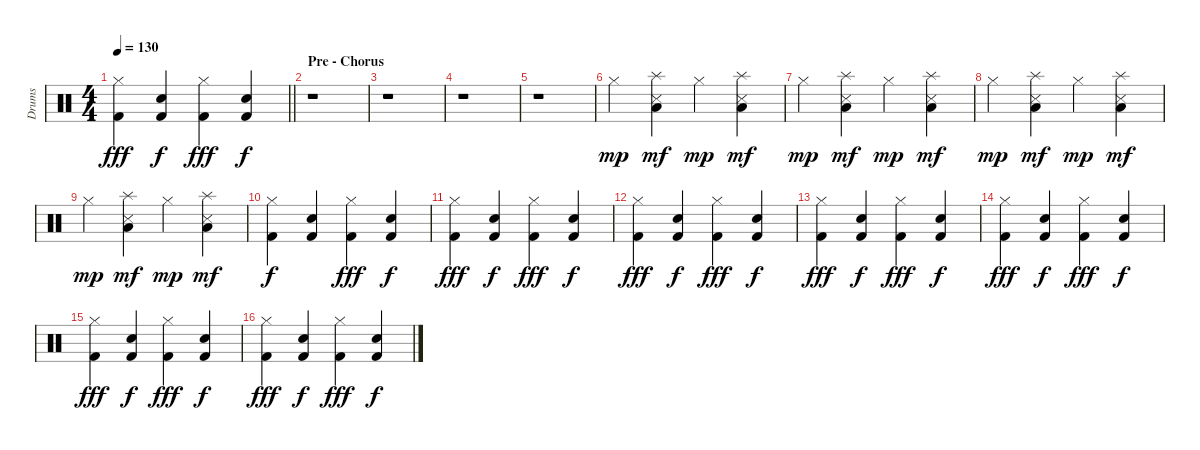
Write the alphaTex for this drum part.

\track ("Drums" "Drums") {instrument percussion}
\staff {score}
\articulation defaults
\ts (4 4)
\tempo 130
\clef neutral
\barLineRight lightlight
\ks c
("Kick (hit) 2" "Hi-Hat (closed)").4{dy fff} ("Kick (hit) 2" "Snare (hit) 2").4{dy f} ("Kick (hit) 2" "Hi-Hat (closed)").4{dy fff} ("Kick (hit) 2" "Snare (hit) 2").4{dy f} |
\section ("" "Pre - Chorus")
r.1 |
r.1 |
r.1 |
r.1 |
"Hi-Hat (closed)".4{dy mp} ("Low Tom (hit)" "Snare (side stick) 3" "Splash (hit)").4{dy mf} "Hi-Hat (closed)".4{dy mp} ("Low Tom (hit)" "Snare (side stick) 3" "Splash (hit)").4{dy mf} |
"Hi-Hat (closed)".4{dy mp} ("Low Tom (hit)" "Snare (side stick) 3" "Splash (hit)").4{dy mf} "Hi-Hat (closed)".4{dy mp} ("Low Tom (hit)" "Snare (side stick) 3" "Splash (hit)").4{dy mf} |
"Hi-Hat (closed)".4{dy mp} ("Low Tom (hit)" "Snare (side stick) 3" "Splash (hit)").4{dy mf} "Hi-Hat (closed)".4{dy mp} ("Low Tom (hit)" "Snare (side stick) 3" "Splash (hit)").4{dy mf} |
"Hi-Hat (closed)".4{dy mp} ("Low Tom (hit)" "Snare (side stick) 3" "Splash (hit)").4{dy mf} "Hi-Hat (closed)".4{dy mp} ("Low Tom (hit)" "Snare (side stick) 3" "Splash (hit)").4{dy mf} |
("Kick (hit) 2" "Hi-Hat (closed)").4{dy f} ("Kick (hit) 2" "Snare (hit) 2").4 ("Kick (hit) 2" "Hi-Hat (closed)").4{dy fff} ("Kick (hit) 2" "Snare (hit) 2").4{dy f} |
("Kick (hit) 2" "Hi-Hat (closed)").4{dy fff} ("Kick (hit) 2" "Snare (hit) 2").4{dy f} ("Kick (hit) 2" "Hi-Hat (closed)").4{dy fff} ("Kick (hit) 2" "Snare (hit) 2").4{dy f} |
("Kick (hit) 2" "Hi-Hat (closed)").4{dy fff} ("Kick (hit) 2" "Snare (hit) 2").4{dy f} ("Kick (hit) 2" "Hi-Hat (closed)").4{dy fff} ("Kick (hit) 2" "Snare (hit) 2").4{dy f} |
("Kick (hit) 2" "Hi-Hat (closed)").4{dy fff} ("Kick (hit) 2" "Snare (hit) 2").4{dy f} ("Kick (hit) 2" "Hi-Hat (closed)").4{dy fff} ("Kick (hit) 2" "Snare (hit) 2").4{dy f} |
("Kick (hit) 2" "Hi-Hat (closed)").4{dy fff} ("Kick (hit) 2" "Snare (hit) 2").4{dy f} ("Kick (hit) 2" "Hi-Hat (closed)").4{dy fff} ("Kick (hit) 2" "Snare (hit) 2").4{dy f} |
("Kick (hit) 2" "Hi-Hat (closed)").4{dy fff} ("Kick (hit) 2" "Snare (hit) 2").4{dy f} ("Kick (hit) 2" "Hi-Hat (closed)").4{dy fff} ("Kick (hit) 2" "Snare (hit) 2").4{dy f} |
("Kick (hit) 2" "Hi-Hat (closed)").4{dy fff} ("Kick (hit) 2" "Snare (hit) 2").4{dy f} ("Kick (hit) 2" "Hi-Hat (closed)").4{dy fff} ("Kick (hit) 2" "Snare (hit) 2").4{dy f}
